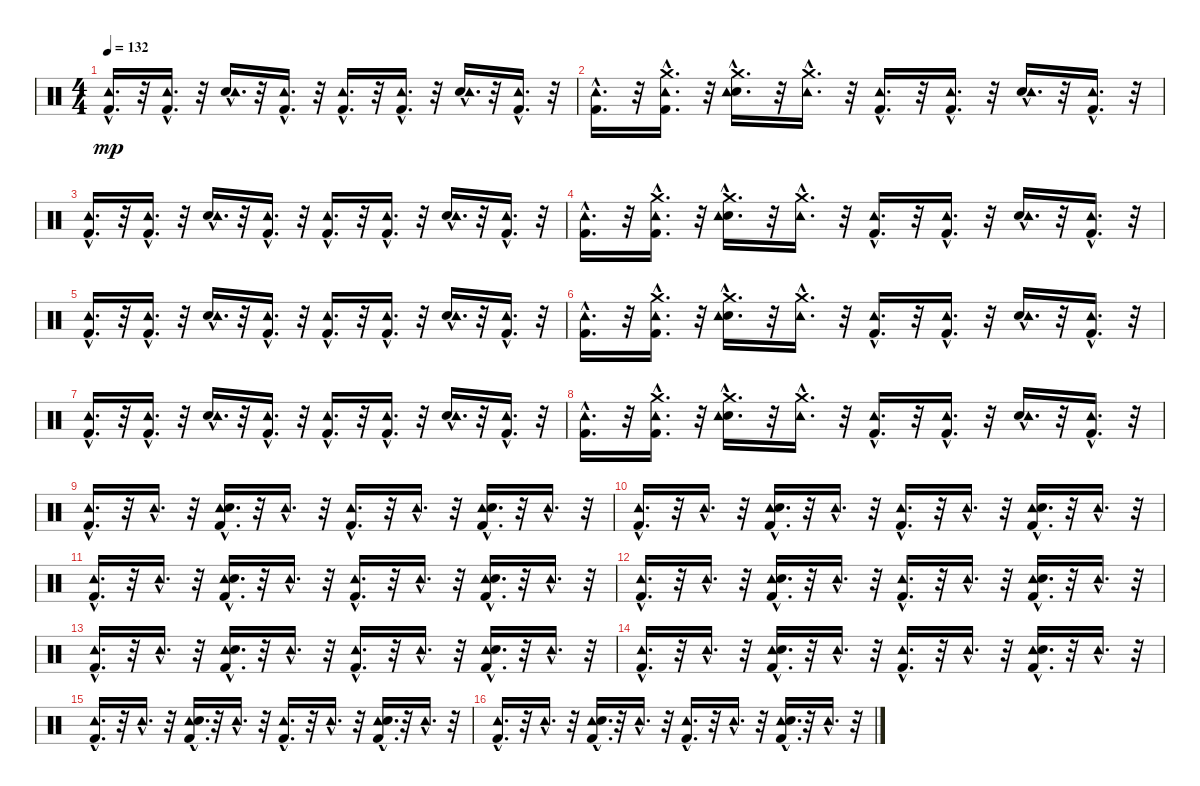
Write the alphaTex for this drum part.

\track "" {instrument percussion}
\staff {score}
\articulation defaults
\ts (4 4)
\tempo 132
\clef neutral
\ks c
("Kick (hit) 2"{hac} "Tambourine (hit)"{hac}).16{d dy mp} r.32 ("Kick (hit) 2"{hac} "Tambourine (hit)"{hac}).16{d} r.32 ("Snare (hit) 2"{hac} "Tambourine (hit)"{hac}).16{d} r.32 ("Kick (hit) 2"{hac} "Tambourine (hit)"{hac}).16{d} r.32 ("Kick (hit) 2"{hac} "Tambourine (hit)"{hac}).16{d} r.32 ("Kick (hit) 2"{hac} "Tambourine (hit)"{hac}).16{d} r.32 ("Snare (hit) 2"{hac} "Tambourine (hit)"{hac}).16{d} r.32 ("Kick (hit) 2"{hac} "Tambourine (hit)"{hac}).16{d} r.32 |
("Kick (hit) 2"{hac} "Tambourine (hit)"{hac}).16{d} r.32 ("Crash medium (hit)"{hac} "Kick (hit) 2"{hac} "Tambourine (hit)"{hac}).16{d} r.32 ("Crash medium (hit)"{hac} "Snare (hit) 2"{hac} "Tambourine (hit)"{hac}).16{d} r.32 ("Crash medium (hit)"{hac} "Tambourine (hit)"{hac}).16{d} r.32 ("Kick (hit) 2"{hac} "Tambourine (hit)"{hac}).16{d} r.32 ("Kick (hit) 2"{hac} "Tambourine (hit)"{hac}).16{d} r.32 ("Snare (hit) 2"{hac} "Tambourine (hit)"{hac}).16{d} r.32 ("Tambourine (hit)"{hac} "Kick (hit) 2"{hac}).16{d} r.32 |
("Kick (hit) 2"{hac} "Tambourine (hit)"{hac}).16{d} r.32 ("Kick (hit) 2"{hac} "Tambourine (hit)"{hac}).16{d} r.32 ("Snare (hit) 2"{hac} "Tambourine (hit)"{hac}).16{d} r.32 ("Kick (hit) 2"{hac} "Tambourine (hit)"{hac}).16{d} r.32 ("Kick (hit) 2"{hac} "Tambourine (hit)"{hac}).16{d} r.32 ("Kick (hit) 2"{hac} "Tambourine (hit)"{hac}).16{d} r.32 ("Snare (hit) 2"{hac} "Tambourine (hit)"{hac}).16{d} r.32 ("Kick (hit) 2"{hac} "Tambourine (hit)"{hac}).16{d} r.32 |
("Kick (hit) 2"{hac} "Tambourine (hit)"{hac}).16{d} r.32 ("Crash medium (hit)"{hac} "Kick (hit) 2"{hac} "Tambourine (hit)"{hac}).16{d} r.32 ("Crash medium (hit)"{hac} "Snare (hit) 2"{hac} "Tambourine (hit)"{hac}).16{d} r.32 ("Crash medium (hit)"{hac} "Tambourine (hit)"{hac}).16{d} r.32 ("Kick (hit) 2"{hac} "Tambourine (hit)"{hac}).16{d} r.32 ("Kick (hit) 2"{hac} "Tambourine (hit)"{hac}).16{d} r.32 ("Snare (hit) 2"{hac} "Tambourine (hit)"{hac}).16{d} r.32 ("Tambourine (hit)"{hac} "Kick (hit) 2"{hac}).16{d} r.32 |
("Kick (hit) 2"{hac} "Tambourine (hit)"{hac}).16{d} r.32 ("Kick (hit) 2"{hac} "Tambourine (hit)"{hac}).16{d} r.32 ("Snare (hit) 2"{hac} "Tambourine (hit)"{hac}).16{d} r.32 ("Kick (hit) 2"{hac} "Tambourine (hit)"{hac}).16{d} r.32 ("Kick (hit) 2"{hac} "Tambourine (hit)"{hac}).16{d} r.32 ("Kick (hit) 2"{hac} "Tambourine (hit)"{hac}).16{d} r.32 ("Snare (hit) 2"{hac} "Tambourine (hit)"{hac}).16{d} r.32 ("Kick (hit) 2"{hac} "Tambourine (hit)"{hac}).16{d} r.32 |
("Kick (hit) 2"{hac} "Tambourine (hit)"{hac}).16{d} r.32 ("Crash medium (hit)"{hac} "Kick (hit) 2"{hac} "Tambourine (hit)"{hac}).16{d} r.32 ("Crash medium (hit)"{hac} "Snare (hit) 2"{hac} "Tambourine (hit)"{hac}).16{d} r.32 ("Crash medium (hit)"{hac} "Tambourine (hit)"{hac}).16{d} r.32 ("Kick (hit) 2"{hac} "Tambourine (hit)"{hac}).16{d} r.32 ("Kick (hit) 2"{hac} "Tambourine (hit)"{hac}).16{d} r.32 ("Snare (hit) 2"{hac} "Tambourine (hit)"{hac}).16{d} r.32 ("Tambourine (hit)"{hac} "Kick (hit) 2"{hac}).16{d} r.32 |
("Kick (hit) 2"{hac} "Tambourine (hit)"{hac}).16{d} r.32 ("Kick (hit) 2"{hac} "Tambourine (hit)"{hac}).16{d} r.32 ("Snare (hit) 2"{hac} "Tambourine (hit)"{hac}).16{d} r.32 ("Kick (hit) 2"{hac} "Tambourine (hit)"{hac}).16{d} r.32 ("Kick (hit) 2"{hac} "Tambourine (hit)"{hac}).16{d} r.32 ("Kick (hit) 2"{hac} "Tambourine (hit)"{hac}).16{d} r.32 ("Snare (hit) 2"{hac} "Tambourine (hit)"{hac}).16{d} r.32 ("Kick (hit) 2"{hac} "Tambourine (hit)"{hac}).16{d} r.32 |
("Kick (hit) 2"{hac} "Tambourine (hit)"{hac}).16{d} r.32 ("Crash medium (hit)"{hac} "Kick (hit) 2"{hac} "Tambourine (hit)"{hac}).16{d} r.32 ("Crash medium (hit)"{hac} "Snare (hit) 2"{hac} "Tambourine (hit)"{hac}).16{d} r.32 ("Crash medium (hit)"{hac} "Tambourine (hit)"{hac}).16{d} r.32 ("Kick (hit) 2"{hac} "Tambourine (hit)"{hac}).16{d} r.32 ("Kick (hit) 2"{hac} "Tambourine (hit)"{hac}).16{d} r.32 ("Snare (hit) 2"{hac} "Tambourine (hit)"{hac}).16{d} r.32 ("Tambourine (hit)"{hac} "Kick (hit) 2"{hac}).16{d} r.32 |
("Tambourine (hit)"{hac} "Kick (hit) 2"{hac}).16{d} r.32 "Tambourine (hit)"{hac}.16{d} r.32 ("Tambourine (hit)"{hac} "Snare (hit) 2"{hac} "Kick (hit) 2"{hac}).16{d} r.32 "Tambourine (hit)"{hac}.16{d} r.32 ("Tambourine (hit)"{hac} "Kick (hit) 2"{hac}).16{d} r.32 "Tambourine (hit)"{hac}.16{d} r.32 ("Tambourine (hit)"{hac} "Kick (hit) 2"{hac} "Snare (hit) 2"{hac}).16{d} r.32 "Tambourine (hit)"{hac}.16{d} r.32 |
("Tambourine (hit)"{hac} "Kick (hit) 2"{hac}).16{d} r.32 "Tambourine (hit)"{hac}.16{d} r.32 ("Tambourine (hit)"{hac} "Snare (hit) 2"{hac} "Kick (hit) 2"{hac}).16{d} r.32 "Tambourine (hit)"{hac}.16{d} r.32 ("Tambourine (hit)"{hac} "Kick (hit) 2"{hac}).16{d} r.32 "Tambourine (hit)"{hac}.16{d} r.32 ("Tambourine (hit)"{hac} "Kick (hit) 2"{hac} "Snare (hit) 2"{hac}).16{d} r.32 "Tambourine (hit)"{hac}.16{d} r.32 |
("Tambourine (hit)"{hac} "Kick (hit) 2"{hac}).16{d} r.32 "Tambourine (hit)"{hac}.16{d} r.32 ("Tambourine (hit)"{hac} "Snare (hit) 2"{hac} "Kick (hit) 2"{hac}).16{d} r.32 "Tambourine (hit)"{hac}.16{d} r.32 ("Tambourine (hit)"{hac} "Kick (hit) 2"{hac}).16{d} r.32 "Tambourine (hit)"{hac}.16{d} r.32 ("Tambourine (hit)"{hac} "Kick (hit) 2"{hac} "Snare (hit) 2"{hac}).16{d} r.32 "Tambourine (hit)"{hac}.16{d} r.32 |
("Tambourine (hit)"{hac} "Kick (hit) 2"{hac}).16{d} r.32 "Tambourine (hit)"{hac}.16{d} r.32 ("Tambourine (hit)"{hac} "Snare (hit) 2"{hac} "Kick (hit) 2"{hac}).16{d} r.32 "Tambourine (hit)"{hac}.16{d} r.32 ("Tambourine (hit)"{hac} "Kick (hit) 2"{hac}).16{d} r.32 "Tambourine (hit)"{hac}.16{d} r.32 ("Tambourine (hit)"{hac} "Kick (hit) 2"{hac} "Snare (hit) 2"{hac}).16{d} r.32 "Tambourine (hit)"{hac}.16{d} r.32 |
("Tambourine (hit)"{hac} "Kick (hit) 2"{hac}).16{d} r.32 "Tambourine (hit)"{hac}.16{d} r.32 ("Tambourine (hit)"{hac} "Snare (hit) 2"{hac} "Kick (hit) 2"{hac}).16{d} r.32 "Tambourine (hit)"{hac}.16{d} r.32 ("Tambourine (hit)"{hac} "Kick (hit) 2"{hac}).16{d} r.32 "Tambourine (hit)"{hac}.16{d} r.32 ("Tambourine (hit)"{hac} "Kick (hit) 2"{hac} "Snare (hit) 2"{hac}).16{d} r.32 "Tambourine (hit)"{hac}.16{d} r.32 |
("Tambourine (hit)"{hac} "Kick (hit) 2"{hac}).16{d} r.32 "Tambourine (hit)"{hac}.16{d} r.32 ("Tambourine (hit)"{hac} "Snare (hit) 2"{hac} "Kick (hit) 2"{hac}).16{d} r.32 "Tambourine (hit)"{hac}.16{d} r.32 ("Tambourine (hit)"{hac} "Kick (hit) 2"{hac}).16{d} r.32 "Tambourine (hit)"{hac}.16{d} r.32 ("Tambourine (hit)"{hac} "Kick (hit) 2"{hac} "Snare (hit) 2"{hac}).16{d} r.32 "Tambourine (hit)"{hac}.16{d} r.32 |
("Tambourine (hit)"{hac} "Kick (hit) 2"{hac}).16{d} r.32 "Tambourine (hit)"{hac}.16{d} r.32 ("Tambourine (hit)"{hac} "Snare (hit) 2"{hac} "Kick (hit) 2"{hac}).16{d} r.32 "Tambourine (hit)"{hac}.16{d} r.32 ("Tambourine (hit)"{hac} "Kick (hit) 2"{hac}).16{d} r.32 "Tambourine (hit)"{hac}.16{d} r.32 ("Tambourine (hit)"{hac} "Kick (hit) 2"{hac} "Snare (hit) 2"{hac}).16{d} r.32 "Tambourine (hit)"{hac}.16{d} r.32 |
("Tambourine (hit)"{hac} "Kick (hit) 2"{hac}).16{d} r.32 "Tambourine (hit)"{hac}.16{d} r.32 ("Tambourine (hit)"{hac} "Snare (hit) 2"{hac} "Kick (hit) 2"{hac}).16{d} r.32 "Tambourine (hit)"{hac}.16{d} r.32 ("Tambourine (hit)"{hac} "Kick (hit) 2"{hac}).16{d} r.32 "Tambourine (hit)"{hac}.16{d} r.32 ("Tambourine (hit)"{hac} "Kick (hit) 2"{hac} "Snare (hit) 2"{hac}).16{d} r.32 "Tambourine (hit)"{hac}.16{d} r.32
